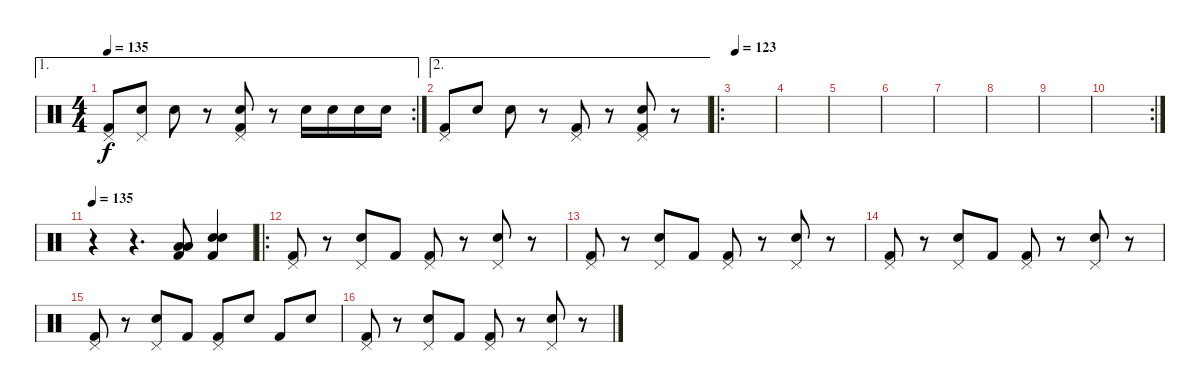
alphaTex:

\track "" {instrument percussion}
\staff {score}
\articulation defaults
\ae 1
\rc 2
\ts (4 4)
\tempo 135
\clef neutral
\ks c
("Kick (hit) 2" "Pedal Hi-Hat (hit)").8{dy f} ("Electric Snare (hit)" "Pedal Hi-Hat (hit)").8 "Electric Snare (hit)".8 r.8 ("Electric Snare (hit)" "Pedal Hi-Hat (hit)" "Kick (hit) 2").8 r.8 "Electric Snare (hit)".16 "Electric Snare (hit)".16 "Electric Snare (hit)".16 "Electric Snare (hit)".16 |
\ae 2
("Kick (hit) 2" "Pedal Hi-Hat (hit)").8 "Electric Snare (hit)".8 "Electric Snare (hit)".8 r.8 ("Kick (hit) 2" "Pedal Hi-Hat (hit)").8 r.8 ("Electric Snare (hit)" "Pedal Hi-Hat (hit)" "Kick (hit) 2").8 r.8 |
\ro
\tempo 123
|
|
|
|
|
|
|
\rc 2
|
\tempo 135
r.4 r.4{d} ("Kick (hit) 2" "Low Floor Tom (hit)" "Low Tom (hit)").8 ("Electric Snare (hit)" "Kick (hit) 2" "Electric Snare (hit)").4 |
\ro
("Kick (hit) 2" "Pedal Hi-Hat (hit)").8 r.8 ("Electric Snare (hit)" "Pedal Hi-Hat (hit)").8 "Kick (hit) 2".8 ("Kick (hit) 2" "Pedal Hi-Hat (hit)").8 r.8 ("Electric Snare (hit)" "Pedal Hi-Hat (hit)").8 r.8 |
("Kick (hit) 2" "Pedal Hi-Hat (hit)").8 r.8 ("Electric Snare (hit)" "Pedal Hi-Hat (hit)").8 "Kick (hit) 2".8 ("Kick (hit) 2" "Pedal Hi-Hat (hit)").8 r.8 ("Electric Snare (hit)" "Pedal Hi-Hat (hit)").8 r.8 |
("Kick (hit) 2" "Pedal Hi-Hat (hit)").8 r.8 ("Electric Snare (hit)" "Pedal Hi-Hat (hit)").8 "Kick (hit) 2".8 ("Kick (hit) 2" "Pedal Hi-Hat (hit)").8 r.8 ("Electric Snare (hit)" "Pedal Hi-Hat (hit)").8 r.8 |
("Kick (hit) 2" "Pedal Hi-Hat (hit)").8 r.8 ("Electric Snare (hit)" "Pedal Hi-Hat (hit)").8 "Kick (hit) 2".8 ("Kick (hit) 2" "Pedal Hi-Hat (hit)").8 "Electric Snare (hit)".8 "Kick (hit) 2".8 "Electric Snare (hit)".8 |
("Kick (hit) 2" "Pedal Hi-Hat (hit)").8 r.8 ("Electric Snare (hit)" "Pedal Hi-Hat (hit)").8 "Kick (hit) 2".8 ("Kick (hit) 2" "Pedal Hi-Hat (hit)").8 r.8 ("Electric Snare (hit)" "Pedal Hi-Hat (hit)").8 r.8
